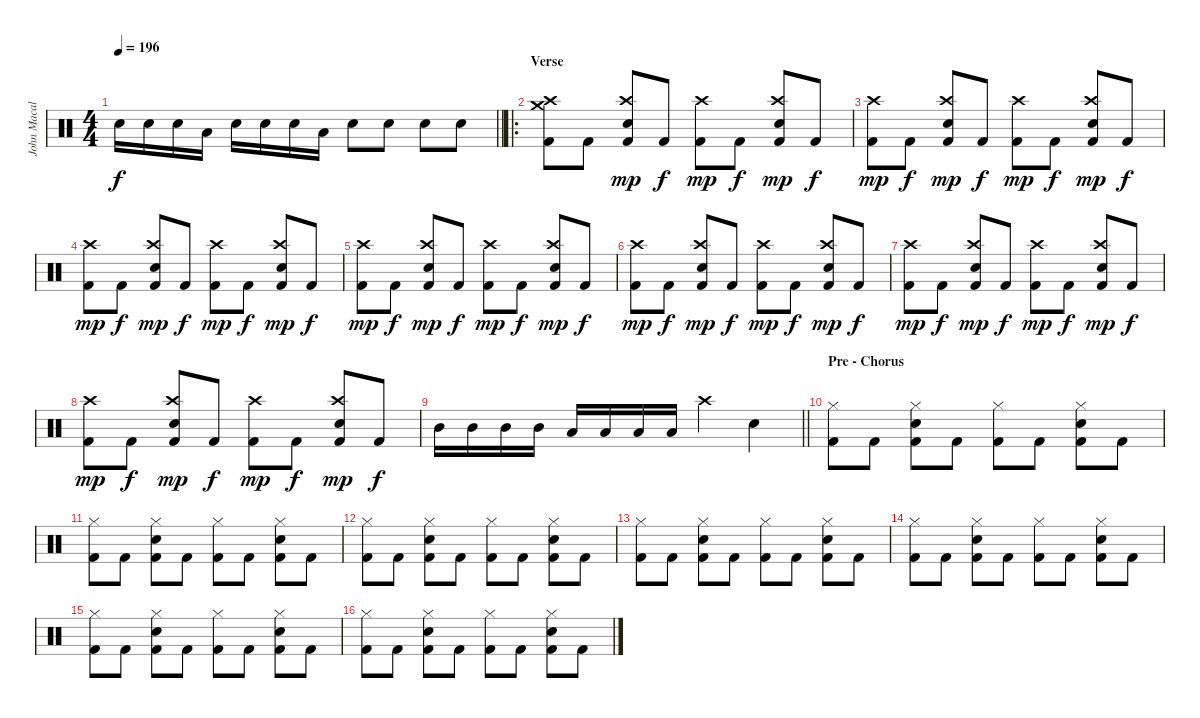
\track ("John Macaluso" "John Macal") {instrument percussion}
\staff {score}
\articulation defaults
\ts (4 4)
\tempo 196
\clef neutral
\barLineRight lightlight
\ks c "Electric Snare (hit)".16{dy f} "Electric Snare (hit)".16 "Electric Snare (hit)".16 "Low Tom (hit)".16 "Electric Snare (hit)".16 "Electric Snare (hit)".16 "Electric Snare (hit)".16 "Low Tom (hit)".16 "Electric Snare (hit)".8 "Electric Snare (hit)".8 "Electric Snare (hit)".8 "Electric Snare (hit)".8
|
\ro
\section ("" "Verse")
("Crash medium (hit)" "Crash high (hit)" "Kick (hit) 2").8 "Kick (hit) 2".8 ("Crash high (hit)" "Electric Snare (hit)" "Kick (hit) 2").8{dy mp} "Kick (hit) 2".8{dy f} ("Crash high (hit)" "Kick (hit) 2").8{dy mp} "Kick (hit) 2".8{dy f} ("Crash high (hit)" "Electric Snare (hit)" "Kick (hit) 2").8{dy mp} "Kick (hit) 2".8{dy f} |
("Crash high (hit)" "Kick (hit) 2").8{dy mp} "Kick (hit) 2".8{dy f} ("Crash high (hit)" "Electric Snare (hit)" "Kick (hit) 2").8{dy mp} "Kick (hit) 2".8{dy f} ("Crash high (hit)" "Kick (hit) 2").8{dy mp} "Kick (hit) 2".8{dy f} ("Crash high (hit)" "Electric Snare (hit)" "Kick (hit) 2").8{dy mp} "Kick (hit) 2".8{dy f} |
("Crash high (hit)" "Kick (hit) 2").8{dy mp} "Kick (hit) 2".8{dy f} ("Crash high (hit)" "Electric Snare (hit)" "Kick (hit) 2").8{dy mp} "Kick (hit) 2".8{dy f} ("Crash high (hit)" "Kick (hit) 2").8{dy mp} "Kick (hit) 2".8{dy f} ("Crash high (hit)" "Electric Snare (hit)" "Kick (hit) 2").8{dy mp} "Kick (hit) 2".8{dy f} |
("Crash high (hit)" "Kick (hit) 2").8{dy mp} "Kick (hit) 2".8{dy f} ("Crash high (hit)" "Electric Snare (hit)" "Kick (hit) 2").8{dy mp} "Kick (hit) 2".8{dy f} ("Crash high (hit)" "Kick (hit) 2").8{dy mp} "Kick (hit) 2".8{dy f} ("Crash high (hit)" "Electric Snare (hit)" "Kick (hit) 2").8{dy mp} "Kick (hit) 2".8{dy f} |
("Crash high (hit)" "Kick (hit) 2").8{dy mp} "Kick (hit) 2".8{dy f} ("Crash high (hit)" "Electric Snare (hit)" "Kick (hit) 2").8{dy mp} "Kick (hit) 2".8{dy f} ("Crash high (hit)" "Kick (hit) 2").8{dy mp} "Kick (hit) 2".8{dy f} ("Crash high (hit)" "Electric Snare (hit)" "Kick (hit) 2").8{dy mp} "Kick (hit) 2".8{dy f} |
("Crash high (hit)" "Kick (hit) 2").8{dy mp} "Kick (hit) 2".8{dy f} ("Crash high (hit)" "Electric Snare (hit)" "Kick (hit) 2").8{dy mp} "Kick (hit) 2".8{dy f} ("Crash high (hit)" "Kick (hit) 2").8{dy mp} "Kick (hit) 2".8{dy f} ("Crash high (hit)" "Electric Snare (hit)" "Kick (hit) 2").8{dy mp} "Kick (hit) 2".8{dy f} |
("Crash high (hit)" "Kick (hit) 2").8{dy mp} "Kick (hit) 2".8{dy f} ("Crash high (hit)" "Electric Snare (hit)" "Kick (hit) 2").8{dy mp} "Kick (hit) 2".8{dy f} ("Crash high (hit)" "Kick (hit) 2").8{dy mp} "Kick (hit) 2".8{dy f} ("Crash high (hit)" "Electric Snare (hit)" "Kick (hit) 2").8{dy mp} "Kick (hit) 2".8{dy f} |
\barLineRight lightlight "Mid Tom (hit)".16 "Mid Tom (hit)".16 "Mid Tom (hit)".16 "Mid Tom (hit)".16 "Low Tom (hit)".16 "Low Tom (hit)".16 "Low Tom (hit)".16 "Low Tom (hit)".16 "Crash high (hit)".4 "Electric Snare (hit)".4
|
\section ("" "Pre - Chorus")
("Hi-Hat (closed)" "Kick (hit) 2").8 "Kick (hit) 2".8 ("Electric Snare (hit)" "Hi-Hat (closed)" "Kick (hit) 2").8 "Kick (hit) 2".8 ("Hi-Hat (closed)" "Kick (hit) 2").8 "Kick (hit) 2".8 ("Electric Snare (hit)" "Hi-Hat (closed)" "Kick (hit) 2").8 "Kick (hit) 2".8 |
("Hi-Hat (closed)" "Kick (hit) 2").8 "Kick (hit) 2".8 ("Electric Snare (hit)" "Hi-Hat (closed)" "Kick (hit) 2").8 "Kick (hit) 2".8 ("Hi-Hat (closed)" "Kick (hit) 2").8 "Kick (hit) 2".8 ("Electric Snare (hit)" "Hi-Hat (closed)" "Kick (hit) 2").8 "Kick (hit) 2".8 |
("Hi-Hat (closed)" "Kick (hit) 2").8 "Kick (hit) 2".8 ("Electric Snare (hit)" "Hi-Hat (closed)" "Kick (hit) 2").8 "Kick (hit) 2".8 ("Hi-Hat (closed)" "Kick (hit) 2").8 "Kick (hit) 2".8 ("Electric Snare (hit)" "Hi-Hat (closed)" "Kick (hit) 2").8 "Kick (hit) 2".8 |
("Hi-Hat (closed)" "Kick (hit) 2").8 "Kick (hit) 2".8 ("Electric Snare (hit)" "Hi-Hat (closed)" "Kick (hit) 2").8 "Kick (hit) 2".8 ("Hi-Hat (closed)" "Kick (hit) 2").8 "Kick (hit) 2".8 ("Electric Snare (hit)" "Hi-Hat (closed)" "Kick (hit) 2").8 "Kick (hit) 2".8 |
("Hi-Hat (closed)" "Kick (hit) 2").8 "Kick (hit) 2".8 ("Electric Snare (hit)" "Hi-Hat (closed)" "Kick (hit) 2").8 "Kick (hit) 2".8 ("Hi-Hat (closed)" "Kick (hit) 2").8 "Kick (hit) 2".8 ("Electric Snare (hit)" "Hi-Hat (closed)" "Kick (hit) 2").8 "Kick (hit) 2".8 |
("Hi-Hat (closed)" "Kick (hit) 2").8 "Kick (hit) 2".8 ("Electric Snare (hit)" "Hi-Hat (closed)" "Kick (hit) 2").8 "Kick (hit) 2".8 ("Hi-Hat (closed)" "Kick (hit) 2").8 "Kick (hit) 2".8 ("Electric Snare (hit)" "Hi-Hat (closed)" "Kick (hit) 2").8 "Kick (hit) 2".8 |
("Hi-Hat (closed)" "Kick (hit) 2").8 "Kick (hit) 2".8 ("Electric Snare (hit)" "Hi-Hat (closed)" "Kick (hit) 2").8 "Kick (hit) 2".8 ("Hi-Hat (closed)" "Kick (hit) 2").8 "Kick (hit) 2".8 ("Electric Snare (hit)" "Hi-Hat (closed)" "Kick (hit) 2").8 "Kick (hit) 2".8
